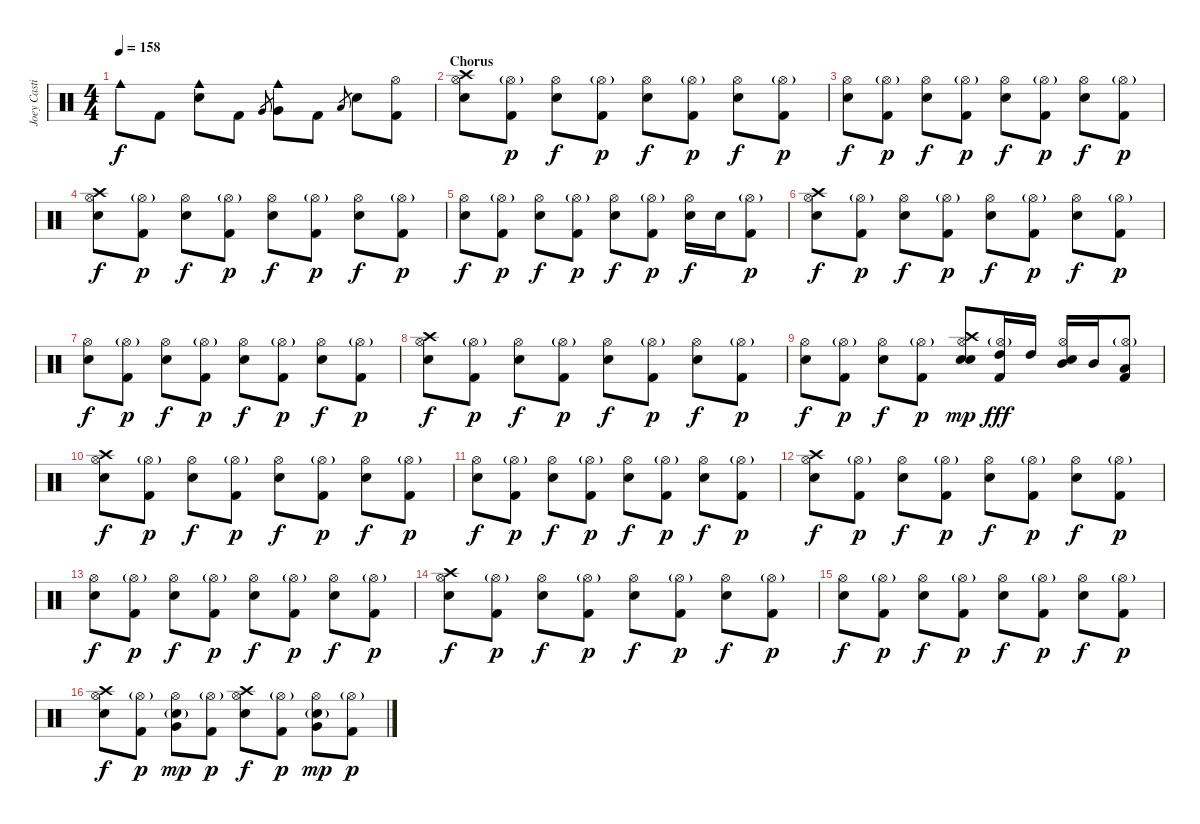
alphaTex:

\track ("Joey Castillo" "Joey Casti") {instrument percussion}
\staff {score}
\articulation defaults
\ts (4 4)
\tempo 158
\clef neutral
\ks c "Cowbell medium (hit)".8{dy f} "Kick (hit) 2".8
("Cowbell medium (hit)" "Electric Snare (hit)").8 "Kick (hit) 2".8 "Very Low Tom (hit)".8{gr} ("Cowbell medium (hit)" "Very Low Tom (hit)").8 "Kick (hit) 2".8 "Low Floor Tom (hit)".8{gr} "Electric Snare (hit)".8 ("Hi-Hat (open)" "Kick (hit) 2").8 |
\section ("" "Chorus")
("Hi-Hat (open)" "Crash high (hit)" "Electric Snare (hit)").8 ("Hi-Hat (open)"{g} "Kick (hit) 2").8{dy p} ("Hi-Hat (open)" "Electric Snare (hit)").8{dy f} ("Hi-Hat (open)"{g} "Kick (hit) 2").8{dy p} ("Hi-Hat (open)" "Electric Snare (hit)").8{dy f} ("Hi-Hat (open)"{g} "Kick (hit) 2").8{dy p} ("Hi-Hat (open)" "Electric Snare (hit)").8{dy f} ("Hi-Hat (open)"{g} "Kick (hit) 2").8{dy p} |
("Hi-Hat (open)" "Electric Snare (hit)").8{dy f} ("Hi-Hat (open)"{g} "Kick (hit) 2").8{dy p} ("Hi-Hat (open)" "Electric Snare (hit)").8{dy f} ("Hi-Hat (open)"{g} "Kick (hit) 2").8{dy p} ("Hi-Hat (open)" "Electric Snare (hit)").8{dy f} ("Hi-Hat (open)"{g} "Kick (hit) 2").8{dy p} ("Hi-Hat (open)" "Electric Snare (hit)").8{dy f} ("Hi-Hat (open)"{g} "Kick (hit) 2").8{dy p} |
("Hi-Hat (open)" "Crash high (hit)" "Electric Snare (hit)").8{dy f} ("Hi-Hat (open)"{g} "Kick (hit) 2").8{dy p} ("Hi-Hat (open)" "Electric Snare (hit)").8{dy f} ("Hi-Hat (open)"{g} "Kick (hit) 2").8{dy p} ("Hi-Hat (open)" "Electric Snare (hit)").8{dy f} ("Hi-Hat (open)"{g} "Kick (hit) 2").8{dy p} ("Hi-Hat (open)" "Electric Snare (hit)").8{dy f} ("Hi-Hat (open)"{g} "Kick (hit) 2").8{dy p} |
("Hi-Hat (open)" "Electric Snare (hit)").8{dy f} ("Hi-Hat (open)"{g} "Kick (hit) 2").8{dy p} ("Hi-Hat (open)" "Electric Snare (hit)").8{dy f} ("Hi-Hat (open)"{g} "Kick (hit) 2").8{dy p} ("Hi-Hat (open)" "Electric Snare (hit)").8{dy f} ("Hi-Hat (open)"{g} "Kick (hit) 2").8{dy p} ("Hi-Hat (open)" "Electric Snare (hit)").16{dy f} "Electric Snare (hit)".16 ("Hi-Hat (open)"{g} "Kick (hit) 2").8{dy p} |
("Hi-Hat (open)" "Crash high (hit)" "Electric Snare (hit)").8{dy f} ("Hi-Hat (open)"{g} "Kick (hit) 2").8{dy p} ("Hi-Hat (open)" "Electric Snare (hit)").8{dy f} ("Hi-Hat (open)"{g} "Kick (hit) 2").8{dy p} ("Hi-Hat (open)" "Electric Snare (hit)").8{dy f} ("Hi-Hat (open)"{g} "Kick (hit) 2").8{dy p} ("Hi-Hat (open)" "Electric Snare (hit)").8{dy f} ("Hi-Hat (open)"{g} "Kick (hit) 2").8{dy p} |
("Hi-Hat (open)" "Electric Snare (hit)").8{dy f} ("Hi-Hat (open)"{g} "Kick (hit) 2").8{dy p} ("Hi-Hat (open)" "Electric Snare (hit)").8{dy f} ("Hi-Hat (open)"{g} "Kick (hit) 2").8{dy p} ("Hi-Hat (open)" "Electric Snare (hit)").8{dy f} ("Hi-Hat (open)"{g} "Kick (hit) 2").8{dy p} ("Hi-Hat (open)" "Electric Snare (hit)").8{dy f} ("Hi-Hat (open)"{g} "Kick (hit) 2").8{dy p} |
("Hi-Hat (open)" "Crash high (hit)" "Electric Snare (hit)").8{dy f} ("Hi-Hat (open)"{g} "Kick (hit) 2").8{dy p} ("Hi-Hat (open)" "Electric Snare (hit)").8{dy f} ("Hi-Hat (open)"{g} "Kick (hit) 2").8{dy p} ("Hi-Hat (open)" "Electric Snare (hit)").8{dy f} ("Hi-Hat (open)"{g} "Kick (hit) 2").8{dy p} ("Hi-Hat (open)" "Electric Snare (hit)").8{dy f} ("Hi-Hat (open)"{g} "Kick (hit) 2").8{dy p} |
("Hi-Hat (open)" "Electric Snare (hit)").8{dy f} ("Hi-Hat (open)"{g} "Kick (hit) 2").8{dy p} ("Hi-Hat (open)" "Electric Snare (hit)").8{dy f} ("Hi-Hat (open)"{g} "Kick (hit) 2").8{dy p} ("Hi-Hat (open)" "Crash high (hit)" "Electric Snare (hit)" "Snare (hit) 2").8{dy mp} ("Hi-Hat (open)"{g} "High Tom (hit)" "Kick (hit) 2").16{dy fff} "High Tom (hit)".16 ("Hi-Hat (open)" "Mid Tom (hit)" "Electric Snare (hit)").16 "Mid Tom (hit)".16 ("Hi-Hat (open)"{g} "Low Tom (hit)" "Kick (hit) 2").8 |
("Hi-Hat (open)" "Crash high (hit)" "Electric Snare (hit)").8{dy f} ("Hi-Hat (open)"{g} "Kick (hit) 2").8{dy p} ("Hi-Hat (open)" "Electric Snare (hit)").8{dy f} ("Hi-Hat (open)"{g} "Kick (hit) 2").8{dy p} ("Hi-Hat (open)" "Electric Snare (hit)").8{dy f} ("Hi-Hat (open)"{g} "Kick (hit) 2").8{dy p} ("Hi-Hat (open)" "Electric Snare (hit)").8{dy f} ("Hi-Hat (open)"{g} "Kick (hit) 2").8{dy p} |
("Hi-Hat (open)" "Electric Snare (hit)").8{dy f} ("Hi-Hat (open)"{g} "Kick (hit) 2").8{dy p} ("Hi-Hat (open)" "Electric Snare (hit)").8{dy f} ("Hi-Hat (open)"{g} "Kick (hit) 2").8{dy p} ("Hi-Hat (open)" "Electric Snare (hit)").8{dy f} ("Hi-Hat (open)"{g} "Kick (hit) 2").8{dy p} ("Hi-Hat (open)" "Electric Snare (hit)").8{dy f} ("Hi-Hat (open)"{g} "Kick (hit) 2").8{dy p} |
("Hi-Hat (open)" "Crash high (hit)" "Electric Snare (hit)").8{dy f} ("Hi-Hat (open)"{g} "Kick (hit) 2").8{dy p} ("Hi-Hat (open)" "Electric Snare (hit)").8{dy f} ("Hi-Hat (open)"{g} "Kick (hit) 2").8{dy p} ("Hi-Hat (open)" "Electric Snare (hit)").8{dy f} ("Hi-Hat (open)"{g} "Kick (hit) 2").8{dy p} ("Hi-Hat (open)" "Electric Snare (hit)").8{dy f} ("Hi-Hat (open)"{g} "Kick (hit) 2").8{dy p} |
("Hi-Hat (open)" "Electric Snare (hit)").8{dy f} ("Hi-Hat (open)"{g} "Kick (hit) 2").8{dy p} ("Hi-Hat (open)" "Electric Snare (hit)").8{dy f} ("Hi-Hat (open)"{g} "Kick (hit) 2").8{dy p} ("Hi-Hat (open)" "Electric Snare (hit)").8{dy f} ("Hi-Hat (open)"{g} "Kick (hit) 2").8{dy p} ("Hi-Hat (open)" "Electric Snare (hit)").8{dy f} ("Hi-Hat (open)"{g} "Kick (hit) 2").8{dy p} |
("Hi-Hat (open)" "Crash high (hit)" "Electric Snare (hit)").8{dy f} ("Hi-Hat (open)"{g} "Kick (hit) 2").8{dy p} ("Hi-Hat (open)" "Electric Snare (hit)").8{dy f} ("Hi-Hat (open)"{g} "Kick (hit) 2").8{dy p} ("Hi-Hat (open)" "Electric Snare (hit)").8{dy f} ("Hi-Hat (open)"{g} "Kick (hit) 2").8{dy p} ("Hi-Hat (open)" "Electric Snare (hit)").8{dy f} ("Hi-Hat (open)"{g} "Kick (hit) 2").8{dy p} |
("Hi-Hat (open)" "Electric Snare (hit)").8{dy f} ("Hi-Hat (open)"{g} "Kick (hit) 2").8{dy p} ("Hi-Hat (open)" "Electric Snare (hit)").8{dy f} ("Hi-Hat (open)"{g} "Kick (hit) 2").8{dy p} ("Hi-Hat (open)" "Electric Snare (hit)").8{dy f} ("Hi-Hat (open)"{g} "Kick (hit) 2").8{dy p} ("Hi-Hat (open)" "Electric Snare (hit)").8{dy f} ("Hi-Hat (open)"{g} "Kick (hit) 2").8{dy p} |
("Hi-Hat (open)" "Crash high (hit)" "Electric Snare (hit)").8{dy f} ("Hi-Hat (open)"{g} "Kick (hit) 2").8{dy p} ("Hi-Hat (open)" "Very Low Tom (hit)" "Electric Snare (hit)"{g}).8{dy mp} ("Hi-Hat (open)"{g} "Kick (hit) 2").8{dy p} ("Hi-Hat (open)" "Crash high (hit)" "Electric Snare (hit)").8{dy f} ("Hi-Hat (open)"{g} "Kick (hit) 2").8{dy p} ("Hi-Hat (open)" "Very Low Tom (hit)" "Electric Snare (hit)"{g}).8{dy mp} ("Hi-Hat (open)"{g} "Kick (hit) 2").8{dy p}
